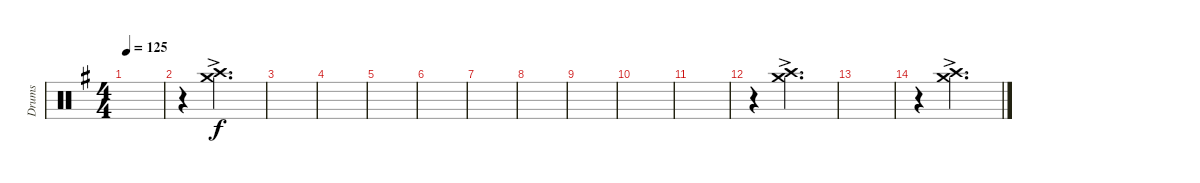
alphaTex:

\defaultSystemsLayout 4
\bracketExtendMode groupsimilarinstruments
\otherSystemsTrackNameOrientation horizontal
\track ("Drumkit" "Drums") {instrument percussion}
\staff {score}
\articulation defaults
\ts (4 4)
\tempo 125
\clef neutral
\scale
0.333333
\ks g
|
\scale
0.333333 r.4{beam Down} ("Crash high (hit)"{ac acc forcenatural} "Crash medium (hit)"{ac acc forcenatural}).2{d beam Down} |
\scale
0.333333 |
\scale
0.333333 |
\scale
0.333333 |
\scale
0.333333 |
\scale
0.333333 |
\scale
0.333333 |
\scale
0.333333 |
\scale
0.333333 |
\scale
0.333333 |
\scale
0.333333 r.4{beam Down} ("Crash high (hit)"{ac acc forcenatural} "Crash medium (hit)"{ac acc forcenatural}).2{d beam Down} |
\scale
0.333333 |
\scale
0.333333 r.4{beam Down} ("Crash high (hit)"{ac acc forcenatural} "Crash medium (hit)"{ac acc forcenatural}).2{d beam Down} |
\scale
0.333333 |
\scale
0.333333
